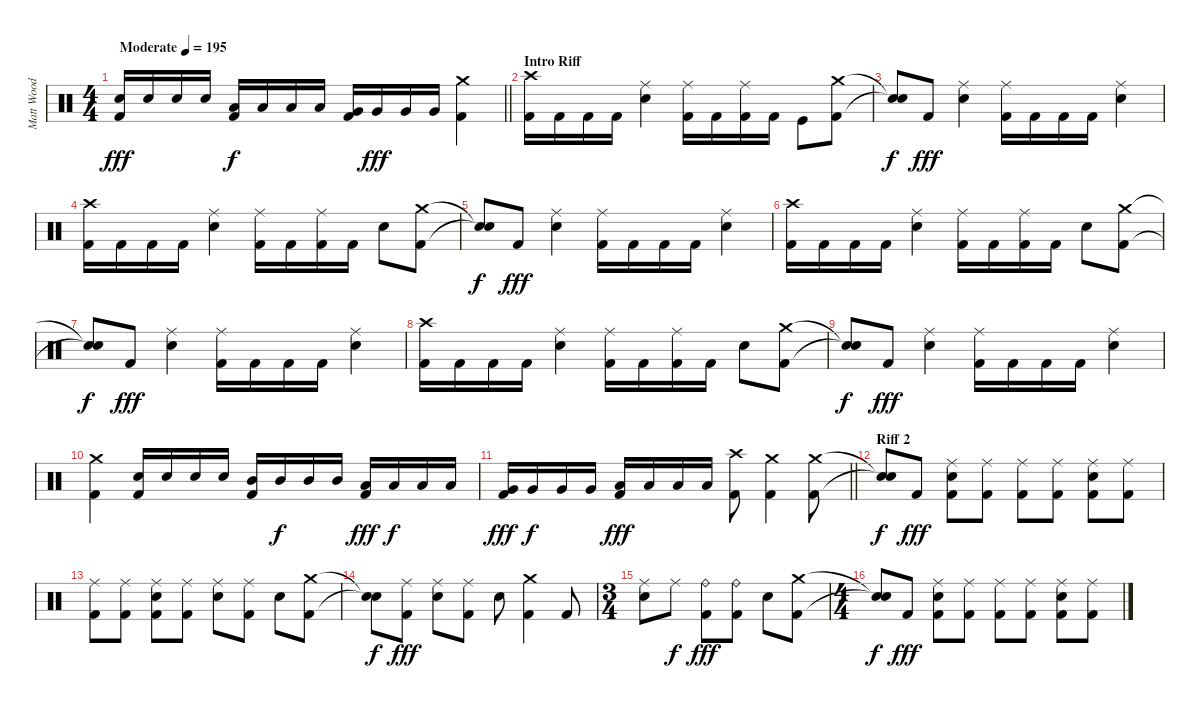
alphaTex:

\track ("Matt Wood" "Matt Wood") {instrument percussion}
\staff {score}
\articulation defaults
\ts (4 4)
\tempo (195 "Moderate")
\clef neutral
\barLineRight lightlight
\ks c
("Snare (hit) 2" "Kick (hit) 2").16{dy fff} "Snare (hit) 2".16 "Snare (hit) 2".16 "Snare (hit) 2".16 ("Low Tom (hit)" "Kick (hit) 2").16{dy f} "Low Tom (hit)".16 "Low Tom (hit)".16 "Low Tom (hit)".16 ("Very Low Tom (hit)" "Kick (hit) 2").16 "Very Low Tom (hit)".16{dy fff} "Very Low Tom (hit)".16 "Very Low Tom (hit)".16 ("Crash medium (hit)" "Kick (hit) 2").4 |
\section ("" "Intro Riff")
("Crash high (hit)" "Kick (hit) 2").16 "Kick (hit) 2".16 "Kick (hit) 2".16 "Kick (hit) 2".16 ("Ride (middle)" "Snare (hit) 2").4 ("Ride (middle)" "Kick (hit) 2").16 "Kick (hit) 2".16 ("Ride (middle)" "Kick (hit) 2").16 "Kick (hit) 2".16 "Kick (hit)".8 ("Crash medium (hit)" "Kick (hit) 2").8 |
("Snare (hit)"{t} "Snare (hit)"{t}).8{dy f} "Kick (hit) 2".8{dy fff} ("Ride (middle)" "Snare (hit) 2").4 ("Ride (middle)" "Kick (hit) 2").16 "Kick (hit) 2".16 "Kick (hit) 2".16 "Kick (hit) 2".16 ("Ride (middle)" "Snare (hit) 2").4 |
("Crash high (hit)" "Kick (hit) 2").16 "Kick (hit) 2".16 "Kick (hit) 2".16 "Kick (hit) 2".16 ("Ride (middle)" "Snare (hit) 2").4 ("Ride (middle)" "Kick (hit) 2").16 "Kick (hit) 2".16 ("Ride (middle)" "Kick (hit) 2").16 "Kick (hit) 2".16 "Snare (hit) 2".8 ("Crash medium (hit)" "Kick (hit) 2").8 |
("Snare (hit)"{t} "Snare (hit)"{t}).8{dy f} "Kick (hit) 2".8{dy fff} ("Ride (middle)" "Snare (hit) 2").4 ("Ride (middle)" "Kick (hit) 2").16 "Kick (hit) 2".16 "Kick (hit) 2".16 "Kick (hit) 2".16 ("Ride (middle)" "Snare (hit) 2").4 |
("Crash high (hit)" "Kick (hit) 2").16 "Kick (hit) 2".16 "Kick (hit) 2".16 "Kick (hit) 2".16 ("Ride (middle)" "Snare (hit) 2").4 ("Ride (middle)" "Kick (hit) 2").16 "Kick (hit) 2".16 ("Ride (middle)" "Kick (hit) 2").16 "Kick (hit) 2".16 "Snare (hit) 2".8 ("Crash medium (hit)" "Kick (hit) 2").8 |
("Snare (hit)"{t} "Snare (hit)"{t}).8{dy f} "Kick (hit) 2".8{dy fff} ("Ride (middle)" "Snare (hit) 2").4 ("Ride (middle)" "Kick (hit) 2").16 "Kick (hit) 2".16 "Kick (hit) 2".16 "Kick (hit) 2".16 ("Ride (middle)" "Snare (hit) 2").4 |
("Crash high (hit)" "Kick (hit) 2").16 "Kick (hit) 2".16 "Kick (hit) 2".16 "Kick (hit) 2".16 ("Ride (middle)" "Snare (hit) 2").4 ("Ride (middle)" "Kick (hit) 2").16 "Kick (hit) 2".16 ("Ride (middle)" "Kick (hit) 2").16 "Kick (hit) 2".16 "Snare (hit) 2".8 ("Crash medium (hit)" "Kick (hit) 2").8 |
("Snare (hit)"{t} "Snare (hit)"{t}).8{dy f} "Kick (hit) 2".8{dy fff} ("Ride (middle)" "Snare (hit) 2").4 ("Ride (middle)" "Kick (hit) 2").16 "Kick (hit) 2".16 "Kick (hit) 2".16 "Kick (hit) 2".16 ("Ride (middle)" "Snare (hit) 2").4 |
("Crash medium (hit)" "Kick (hit) 2").4 ("Snare (hit) 2" "Kick (hit) 2").16 "Snare (hit) 2".16 "Snare (hit) 2".16 "Snare (hit) 2".16 ("Mid Tom (hit)" "Kick (hit) 2").16 "Mid Tom (hit)".16{dy f} "Mid Tom (hit)".16 "Mid Tom (hit)".16 ("Low Tom (hit)" "Kick (hit) 2").16{dy fff} "Low Tom (hit)".16{dy f} "Low Tom (hit)".16 "Low Tom (hit)".16 |
\barLineRight lightlight
("Very Low Tom (hit)" "Kick (hit) 2").16{dy fff} "Very Low Tom (hit)".16{dy f} "Very Low Tom (hit)".16 "Very Low Tom (hit)".16 ("Low Floor Tom (hit)" "Kick (hit) 2").16{dy fff} "Low Floor Tom (hit)".16 "Low Floor Tom (hit)".16 "Low Floor Tom (hit)".16 ("Crash high (hit)" "Kick (hit) 2").8 ("Crash medium (hit)" "Kick (hit) 2").4 ("Crash medium (hit)" "Kick (hit) 2").8 |
\section ("" "Riff 2")
("Snare (hit)"{t} "Snare (hit)"{t}).8{dy f} "Kick (hit) 2".8{dy fff} ("Ride (middle)" "Snare (hit) 2" "Kick (hit) 2").8 ("Ride (middle)" "Kick (hit) 2").8 ("Ride (middle)" "Kick (hit) 2").8 ("Ride (middle)" "Kick (hit) 2").8 ("Ride (middle)" "Snare (hit) 2" "Kick (hit) 2").8 ("Ride (middle)" "Kick (hit) 2").8 |
("Ride (middle)" "Kick (hit) 2").8 ("Ride (middle)" "Kick (hit) 2").8 ("Ride (middle)" "Snare (hit) 2" "Kick (hit) 2").8 ("Ride (middle)" "Kick (hit) 2").8 ("Ride (middle)" "Snare (hit) 2").8 ("Ride (middle)" "Kick (hit) 2").8 "Snare (hit) 2".8 ("Crash medium (hit)" "Kick (hit) 2").8 |
("Snare (hit)"{t} "Snare (hit)"{t}).8{dy f} ("Ride (middle)" "Kick (hit) 2").8{dy fff} ("Ride (middle)" "Snare (hit) 2").8 ("Ride (middle)" "Kick (hit) 2").8 "Snare (hit) 2".8 ("Crash medium (hit)" "Kick (hit) 2").4 "Kick (hit) 2".8 |
\ts (3 4)
("Ride (middle)" "Snare (hit) 2").8 "Ride (middle)".8{dy f} ("Ride (bell)" "Kick (hit) 2").8{dy fff} ("Ride (bell)" "Kick (hit) 2").8 "Snare (hit) 2".8 ("Crash medium (hit)" "Kick (hit) 2").8 |
\ts (4 4)
("Snare (hit)"{t} "Snare (hit)"{t}).8{dy f} "Kick (hit) 2".8{dy fff} ("Ride (middle)" "Snare (hit) 2" "Kick (hit) 2").8 ("Ride (middle)" "Kick (hit) 2").8 ("Ride (middle)" "Kick (hit) 2").8 ("Ride (middle)" "Kick (hit) 2").8 ("Ride (middle)" "Snare (hit) 2" "Kick (hit) 2").8 ("Ride (middle)" "Kick (hit) 2").8
